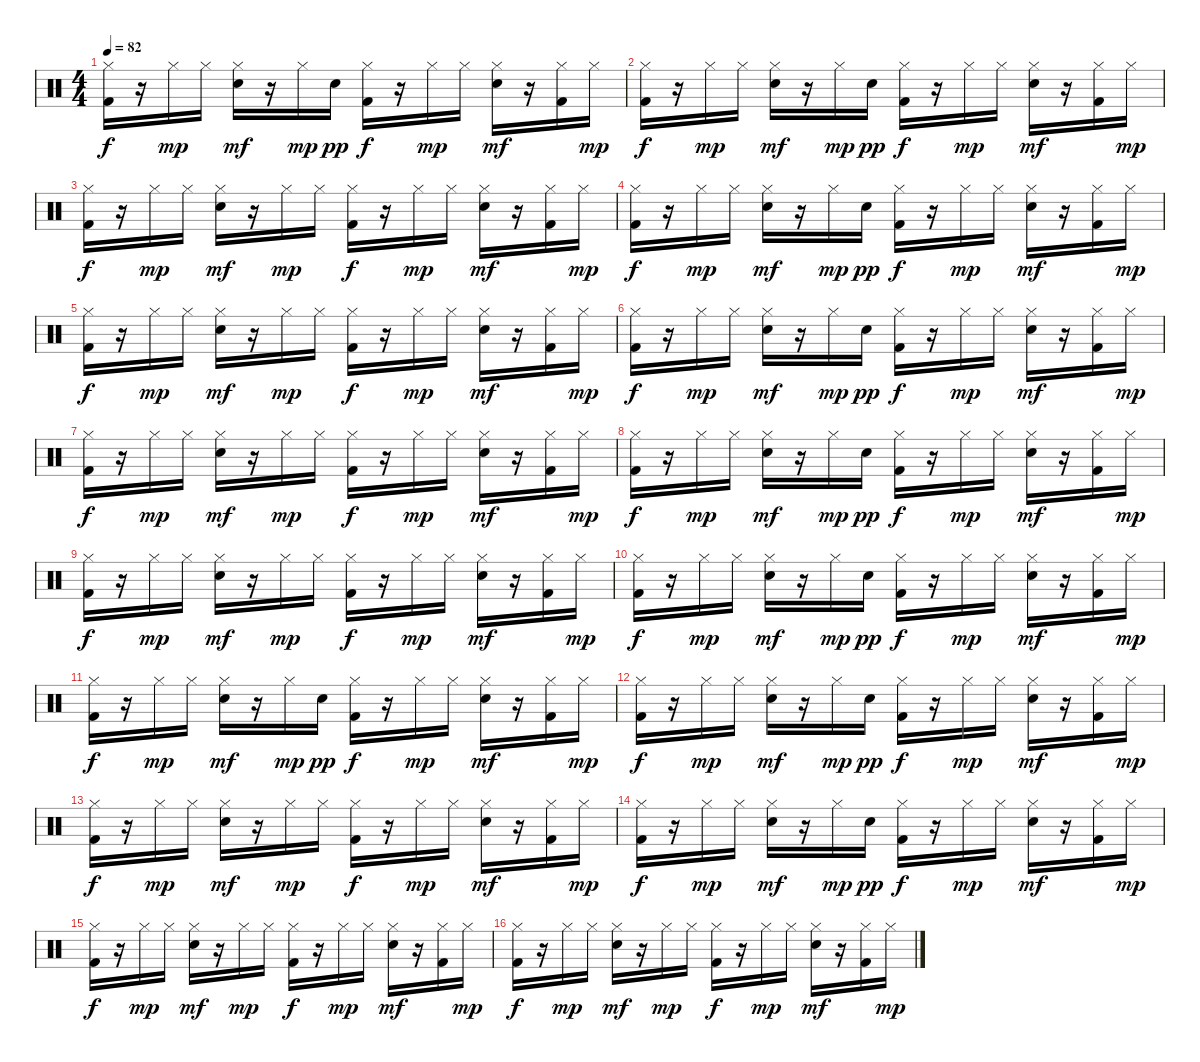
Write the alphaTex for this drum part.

\track "" {instrument percussion}
\staff {score}
\articulation defaults
\ts (4 4)
\tempo 82
\clef neutral
\ks c
("Hi-Hat (closed)" "Kick (hit) 2").16{dy f} r.16 "Hi-Hat (closed)".16{dy mp} "Hi-Hat (closed)".16 ("Hi-Hat (closed)" "Snare (hit) 2").16{dy mf} r.16 "Hi-Hat (closed)".16{dy mp} "Snare (hit) 2".16{dy pp} ("Hi-Hat (closed)" "Kick (hit) 2").16{dy f} r.16 "Hi-Hat (closed)".16{dy mp} "Hi-Hat (closed)".16 ("Hi-Hat (closed)" "Snare (hit) 2").16{dy mf} r.16 ("Hi-Hat (closed)" "Kick (hit) 2").16 "Hi-Hat (closed)".16{dy mp} |
("Hi-Hat (closed)" "Kick (hit) 2").16{dy f} r.16 "Hi-Hat (closed)".16{dy mp} "Hi-Hat (closed)".16 ("Hi-Hat (closed)" "Snare (hit) 2").16{dy mf} r.16 "Hi-Hat (closed)".16{dy mp} "Snare (hit) 2".16{dy pp} ("Hi-Hat (closed)" "Kick (hit) 2").16{dy f} r.16 "Hi-Hat (closed)".16{dy mp} "Hi-Hat (closed)".16 ("Hi-Hat (closed)" "Snare (hit) 2").16{dy mf} r.16 ("Hi-Hat (closed)" "Kick (hit) 2").16 "Hi-Hat (closed)".16{dy mp} |
("Hi-Hat (closed)" "Kick (hit) 2").16{dy f} r.16 "Hi-Hat (closed)".16{dy mp} "Hi-Hat (closed)".16 ("Hi-Hat (closed)" "Snare (hit) 2").16{dy mf} r.16 "Hi-Hat (closed)".16{dy mp} "Hi-Hat (closed)".16 ("Hi-Hat (closed)" "Kick (hit) 2").16{dy f} r.16 "Hi-Hat (closed)".16{dy mp} "Hi-Hat (closed)".16 ("Hi-Hat (closed)" "Snare (hit) 2").16{dy mf} r.16 ("Hi-Hat (closed)" "Kick (hit) 2").16 "Hi-Hat (closed)".16{dy mp} |
("Hi-Hat (closed)" "Kick (hit) 2").16{dy f} r.16 "Hi-Hat (closed)".16{dy mp} "Hi-Hat (closed)".16 ("Hi-Hat (closed)" "Snare (hit) 2").16{dy mf} r.16 "Hi-Hat (closed)".16{dy mp} "Snare (hit) 2".16{dy pp} ("Hi-Hat (closed)" "Kick (hit) 2").16{dy f} r.16 "Hi-Hat (closed)".16{dy mp} "Hi-Hat (closed)".16 ("Hi-Hat (closed)" "Snare (hit) 2").16{dy mf} r.16 ("Hi-Hat (closed)" "Kick (hit) 2").16 "Hi-Hat (closed)".16{dy mp} |
("Hi-Hat (closed)" "Kick (hit) 2").16{dy f} r.16 "Hi-Hat (closed)".16{dy mp} "Hi-Hat (closed)".16 ("Hi-Hat (closed)" "Snare (hit) 2").16{dy mf} r.16 "Hi-Hat (closed)".16{dy mp} "Hi-Hat (closed)".16 ("Hi-Hat (closed)" "Kick (hit) 2").16{dy f} r.16 "Hi-Hat (closed)".16{dy mp} "Hi-Hat (closed)".16 ("Hi-Hat (closed)" "Snare (hit) 2").16{dy mf} r.16 ("Hi-Hat (closed)" "Kick (hit) 2").16 "Hi-Hat (closed)".16{dy mp} |
("Hi-Hat (closed)" "Kick (hit) 2").16{dy f} r.16 "Hi-Hat (closed)".16{dy mp} "Hi-Hat (closed)".16 ("Hi-Hat (closed)" "Snare (hit) 2").16{dy mf} r.16 "Hi-Hat (closed)".16{dy mp} "Snare (hit) 2".16{dy pp} ("Hi-Hat (closed)" "Kick (hit) 2").16{dy f} r.16 "Hi-Hat (closed)".16{dy mp} "Hi-Hat (closed)".16 ("Hi-Hat (closed)" "Snare (hit) 2").16{dy mf} r.16 ("Hi-Hat (closed)" "Kick (hit) 2").16 "Hi-Hat (closed)".16{dy mp} |
("Hi-Hat (closed)" "Kick (hit) 2").16{dy f} r.16 "Hi-Hat (closed)".16{dy mp} "Hi-Hat (closed)".16 ("Hi-Hat (closed)" "Snare (hit) 2").16{dy mf} r.16 "Hi-Hat (closed)".16{dy mp} "Hi-Hat (closed)".16 ("Hi-Hat (closed)" "Kick (hit) 2").16{dy f} r.16 "Hi-Hat (closed)".16{dy mp} "Hi-Hat (closed)".16 ("Hi-Hat (closed)" "Snare (hit) 2").16{dy mf} r.16 ("Hi-Hat (closed)" "Kick (hit) 2").16 "Hi-Hat (closed)".16{dy mp} |
("Hi-Hat (closed)" "Kick (hit) 2").16{dy f} r.16 "Hi-Hat (closed)".16{dy mp} "Hi-Hat (closed)".16 ("Hi-Hat (closed)" "Snare (hit) 2").16{dy mf} r.16 "Hi-Hat (closed)".16{dy mp} "Snare (hit) 2".16{dy pp} ("Hi-Hat (closed)" "Kick (hit) 2").16{dy f} r.16 "Hi-Hat (closed)".16{dy mp} "Hi-Hat (closed)".16 ("Hi-Hat (closed)" "Snare (hit) 2").16{dy mf} r.16 ("Hi-Hat (closed)" "Kick (hit) 2").16 "Hi-Hat (closed)".16{dy mp} |
("Hi-Hat (closed)" "Kick (hit) 2").16{dy f} r.16 "Hi-Hat (closed)".16{dy mp} "Hi-Hat (closed)".16 ("Hi-Hat (closed)" "Snare (hit) 2").16{dy mf} r.16 "Hi-Hat (closed)".16{dy mp} "Hi-Hat (closed)".16 ("Hi-Hat (closed)" "Kick (hit) 2").16{dy f} r.16 "Hi-Hat (closed)".16{dy mp} "Hi-Hat (closed)".16 ("Hi-Hat (closed)" "Snare (hit) 2").16{dy mf} r.16 ("Hi-Hat (closed)" "Kick (hit) 2").16 "Hi-Hat (closed)".16{dy mp} |
("Hi-Hat (closed)" "Kick (hit) 2").16{dy f} r.16 "Hi-Hat (closed)".16{dy mp} "Hi-Hat (closed)".16 ("Hi-Hat (closed)" "Snare (hit) 2").16{dy mf} r.16 "Hi-Hat (closed)".16{dy mp} "Snare (hit) 2".16{dy pp} ("Hi-Hat (closed)" "Kick (hit) 2").16{dy f} r.16 "Hi-Hat (closed)".16{dy mp} "Hi-Hat (closed)".16 ("Hi-Hat (closed)" "Snare (hit) 2").16{dy mf} r.16 ("Hi-Hat (closed)" "Kick (hit) 2").16 "Hi-Hat (closed)".16{dy mp} |
("Hi-Hat (closed)" "Kick (hit) 2").16{dy f} r.16 "Hi-Hat (closed)".16{dy mp} "Hi-Hat (closed)".16 ("Hi-Hat (closed)" "Snare (hit) 2").16{dy mf} r.16 "Hi-Hat (closed)".16{dy mp} "Snare (hit) 2".16{dy pp} ("Hi-Hat (closed)" "Kick (hit) 2").16{dy f} r.16 "Hi-Hat (closed)".16{dy mp} "Hi-Hat (closed)".16 ("Hi-Hat (closed)" "Snare (hit) 2").16{dy mf} r.16 ("Hi-Hat (closed)" "Kick (hit) 2").16 "Hi-Hat (closed)".16{dy mp} |
("Hi-Hat (closed)" "Kick (hit) 2").16{dy f} r.16 "Hi-Hat (closed)".16{dy mp} "Hi-Hat (closed)".16 ("Hi-Hat (closed)" "Snare (hit) 2").16{dy mf} r.16 "Hi-Hat (closed)".16{dy mp} "Snare (hit) 2".16{dy pp} ("Hi-Hat (closed)" "Kick (hit) 2").16{dy f} r.16 "Hi-Hat (closed)".16{dy mp} "Hi-Hat (closed)".16 ("Hi-Hat (closed)" "Snare (hit) 2").16{dy mf} r.16 ("Hi-Hat (closed)" "Kick (hit) 2").16 "Hi-Hat (closed)".16{dy mp} |
("Hi-Hat (closed)" "Kick (hit) 2").16{dy f} r.16 "Hi-Hat (closed)".16{dy mp} "Hi-Hat (closed)".16 ("Hi-Hat (closed)" "Snare (hit) 2").16{dy mf} r.16 "Hi-Hat (closed)".16{dy mp} "Hi-Hat (closed)".16 ("Hi-Hat (closed)" "Kick (hit) 2").16{dy f} r.16 "Hi-Hat (closed)".16{dy mp} "Hi-Hat (closed)".16 ("Hi-Hat (closed)" "Snare (hit) 2").16{dy mf} r.16 ("Hi-Hat (closed)" "Kick (hit) 2").16 "Hi-Hat (closed)".16{dy mp} |
("Hi-Hat (closed)" "Kick (hit) 2").16{dy f} r.16 "Hi-Hat (closed)".16{dy mp} "Hi-Hat (closed)".16 ("Hi-Hat (closed)" "Snare (hit) 2").16{dy mf} r.16 "Hi-Hat (closed)".16{dy mp} "Snare (hit) 2".16{dy pp} ("Hi-Hat (closed)" "Kick (hit) 2").16{dy f} r.16 "Hi-Hat (closed)".16{dy mp} "Hi-Hat (closed)".16 ("Hi-Hat (closed)" "Snare (hit) 2").16{dy mf} r.16 ("Hi-Hat (closed)" "Kick (hit) 2").16 "Hi-Hat (closed)".16{dy mp} |
("Hi-Hat (closed)" "Kick (hit) 2").16{dy f} r.16 "Hi-Hat (closed)".16{dy mp} "Hi-Hat (closed)".16 ("Hi-Hat (closed)" "Snare (hit) 2").16{dy mf} r.16 "Hi-Hat (closed)".16{dy mp} "Hi-Hat (closed)".16 ("Hi-Hat (closed)" "Kick (hit) 2").16{dy f} r.16 "Hi-Hat (closed)".16{dy mp} "Hi-Hat (closed)".16 ("Hi-Hat (closed)" "Snare (hit) 2").16{dy mf} r.16 ("Hi-Hat (closed)" "Kick (hit) 2").16 "Hi-Hat (closed)".16{dy mp} |
("Hi-Hat (closed)" "Kick (hit) 2").16{dy f} r.16 "Hi-Hat (closed)".16{dy mp} "Hi-Hat (closed)".16 ("Hi-Hat (closed)" "Snare (hit) 2").16{dy mf} r.16 "Hi-Hat (closed)".16{dy mp} "Hi-Hat (closed)".16 ("Hi-Hat (closed)" "Kick (hit) 2").16{dy f} r.16 "Hi-Hat (closed)".16{dy mp} "Hi-Hat (closed)".16 ("Hi-Hat (closed)" "Snare (hit) 2").16{dy mf} r.16 ("Hi-Hat (closed)" "Kick (hit) 2").16 "Hi-Hat (closed)".16{dy mp}
